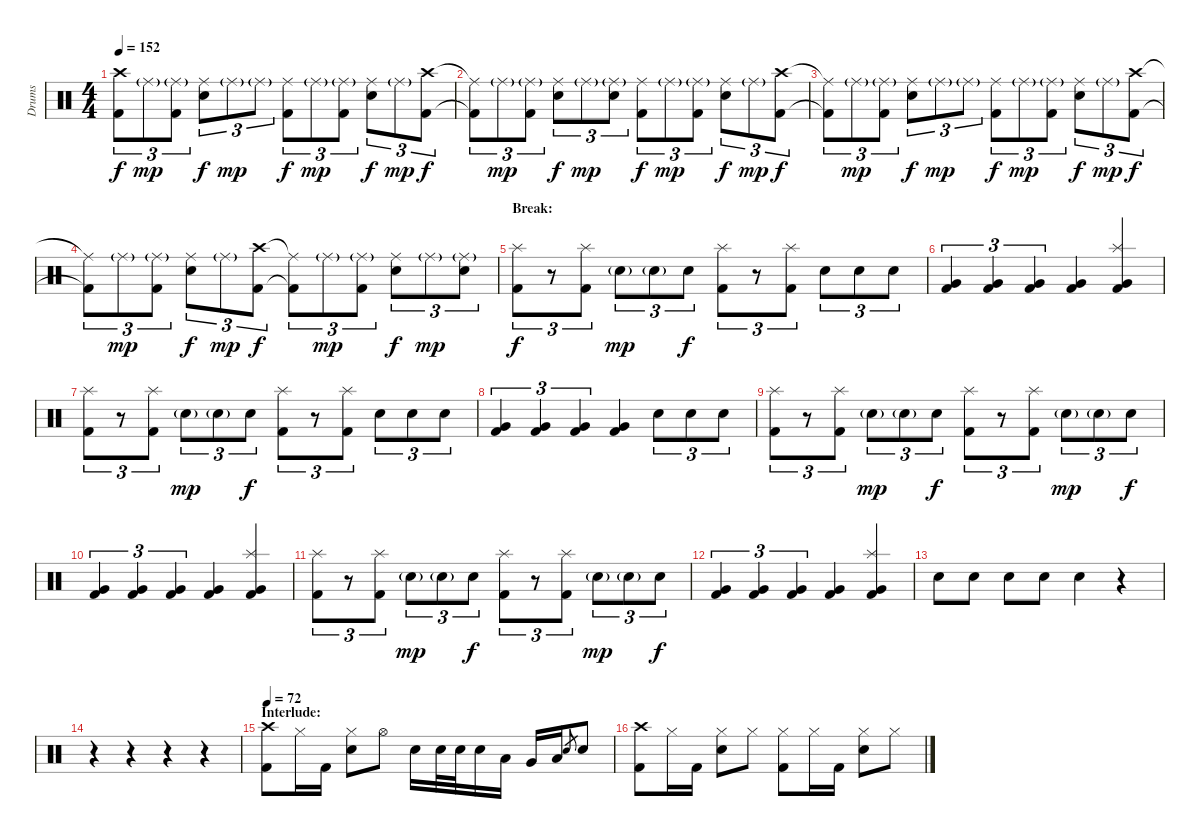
\track ("Drums" "Drums") {instrument percussion}
\staff {score}
\articulation defaults
\ts (4 4)
\tempo 152
\clef neutral
\ks c
("Crash high (hit)" "Kick (hit) 2").8{tu (3 2) dy f} "Ride (middle)"{g}.8{tu (3 2) dy mp} ("Ride (middle)"{g} "Kick (hit) 2").8{tu (3 2)} ("Ride (middle)" "Electric Snare (hit)").8{tu (3 2) dy f} "Ride (middle)"{g}.8{tu (3 2) dy mp} "Ride (middle)"{g}.8{tu (3 2)} ("Ride (middle)" "Kick (hit) 2").8{tu (3 2) dy f} "Ride (middle)"{g}.8{tu (3 2) dy mp} ("Ride (middle)"{g} "Kick (hit) 2").8{tu (3 2)} ("Ride (middle)" "Electric Snare (hit)").8{tu (3 2) dy f} "Ride (middle)"{g}.8{tu (3 2) dy mp} ("Crash high (hit)" "Kick (hit) 2").8{tu (3 2) dy f} |
("Ride (middle)"{t} "Kick (hit) 2"{t}).8{tu (3 2)} "Ride (middle)"{g}.8{tu (3 2) dy mp} ("Ride (middle)"{g} "Kick (hit) 2").8{tu (3 2)} ("Ride (middle)" "Electric Snare (hit)").8{tu (3 2) dy f} "Ride (middle)"{g}.8{tu (3 2) dy mp} ("Ride (middle)"{g} "Electric Snare (hit)").8{tu (3 2)} ("Ride (middle)" "Kick (hit) 2").8{tu (3 2) dy f} "Ride (middle)"{g}.8{tu (3 2) dy mp} ("Ride (middle)"{g} "Kick (hit) 2").8{tu (3 2)} ("Ride (middle)" "Electric Snare (hit)").8{tu (3 2) dy f} "Ride (middle)"{g}.8{tu (3 2) dy mp} ("Crash high (hit)" "Kick (hit) 2").8{tu (3 2) dy f} |
("Ride (middle)"{t} "Kick (hit) 2"{t}).8{tu (3 2)} "Ride (middle)"{g}.8{tu (3 2) dy mp} ("Ride (middle)"{g} "Kick (hit) 2").8{tu (3 2)} ("Ride (middle)" "Electric Snare (hit)").8{tu (3 2) dy f} "Ride (middle)"{g}.8{tu (3 2) dy mp} "Ride (middle)"{g}.8{tu (3 2)} ("Ride (middle)" "Kick (hit) 2").8{tu (3 2) dy f} "Ride (middle)"{g}.8{tu (3 2) dy mp} ("Ride (middle)"{g} "Kick (hit) 2").8{tu (3 2)} ("Ride (middle)" "Electric Snare (hit)").8{tu (3 2) dy f} "Ride (middle)"{g}.8{tu (3 2) dy mp} ("Crash high (hit)" "Kick (hit) 2").8{tu (3 2) dy f} |
("Ride (middle)"{t} "Kick (hit) 2"{t}).8{tu (3 2)} "Ride (middle)"{g}.8{tu (3 2) dy mp} ("Ride (middle)"{g} "Kick (hit) 2").8{tu (3 2)} ("Ride (middle)" "Electric Snare (hit)").8{tu (3 2) dy f} "Ride (middle)"{g}.8{tu (3 2) dy mp} ("Crash high (hit)" "Kick (hit) 2").8{tu (3 2) dy f} ("Ride (middle)"{t} "Kick (hit) 2"{t}).8{tu (3 2)} "Ride (middle)"{g}.8{tu (3 2) dy mp} ("Ride (middle)"{g} "Kick (hit) 2").8{tu (3 2)} ("Ride (middle)" "Electric Snare (hit)").8{tu (3 2) dy f} "Ride (middle)"{g}.8{tu (3 2) dy mp} ("Ride (middle)"{g} "Electric Snare (hit)").8{tu (3 2)} |
\section ("" "Break:")
("Splash (hit)" "Kick (hit) 2").8{tu (3 2) dy f} r.8{tu (3 2)} ("Splash (hit)" "Kick (hit) 2").8{tu (3 2)} "Electric Snare (hit)"{g}.8{tu (3 2) dy mp} "Electric Snare (hit)"{g}.8{tu (3 2)} "Electric Snare (hit)".8{tu (3 2) dy f} ("Splash (hit)" "Kick (hit) 2").8{tu (3 2)} r.8{tu (3 2)} ("Splash (hit)" "Kick (hit) 2").8{tu (3 2)} "Electric Snare (hit)".8{tu (3 2)} "Electric Snare (hit)".8{tu (3 2)} "Electric Snare (hit)".8{tu (3 2)} |
("Very Low Tom (hit)" "Kick (hit) 2").4{tu (3 2)} ("Very Low Tom (hit)" "Kick (hit) 2").4{tu (3 2)} ("Very Low Tom (hit)" "Kick (hit) 2").4{tu (3 2)} ("Very Low Tom (hit)" "Kick (hit) 2").4 ("Splash (hit)" "Very Low Tom (hit)" "Kick (hit) 2").4 |
("Splash (hit)" "Kick (hit) 2").8{tu (3 2)} r.8{tu (3 2)} ("Splash (hit)" "Kick (hit) 2").8{tu (3 2)} "Electric Snare (hit)"{g}.8{tu (3 2) dy mp} "Electric Snare (hit)"{g}.8{tu (3 2)} "Electric Snare (hit)".8{tu (3 2) dy f} ("Splash (hit)" "Kick (hit) 2").8{tu (3 2)} r.8{tu (3 2)} ("Splash (hit)" "Kick (hit) 2").8{tu (3 2)} "Electric Snare (hit)".8{tu (3 2)} "Electric Snare (hit)".8{tu (3 2)} "Electric Snare (hit)".8{tu (3 2)} |
("Very Low Tom (hit)" "Kick (hit) 2").4{tu (3 2)} ("Very Low Tom (hit)" "Kick (hit) 2").4{tu (3 2)} ("Very Low Tom (hit)" "Kick (hit) 2").4{tu (3 2)} ("Very Low Tom (hit)" "Kick (hit) 2").4 "Electric Snare (hit)".8{tu (3 2)} "Electric Snare (hit)".8{tu (3 2)} "Electric Snare (hit)".8{tu (3 2)} |
("Splash (hit)" "Kick (hit) 2").8{tu (3 2)} r.8{tu (3 2)} ("Splash (hit)" "Kick (hit) 2").8{tu (3 2)} "Electric Snare (hit)"{g}.8{tu (3 2) dy mp} "Electric Snare (hit)"{g}.8{tu (3 2)} "Electric Snare (hit)".8{tu (3 2) dy f} ("Splash (hit)" "Kick (hit) 2").8{tu (3 2)} r.8{tu (3 2)} ("Splash (hit)" "Kick (hit) 2").8{tu (3 2)} "Electric Snare (hit)"{g}.8{tu (3 2) dy mp} "Electric Snare (hit)"{g}.8{tu (3 2)} "Electric Snare (hit)".8{tu (3 2) dy f} |
("Very Low Tom (hit)" "Kick (hit) 2").4{tu (3 2)} ("Very Low Tom (hit)" "Kick (hit) 2").4{tu (3 2)} ("Very Low Tom (hit)" "Kick (hit) 2").4{tu (3 2)} ("Very Low Tom (hit)" "Kick (hit) 2").4 ("Splash (hit)" "Very Low Tom (hit)" "Kick (hit) 2").4 |
("Splash (hit)" "Kick (hit) 2").8{tu (3 2)} r.8{tu (3 2)} ("Splash (hit)" "Kick (hit) 2").8{tu (3 2)} "Electric Snare (hit)"{g}.8{tu (3 2) dy mp} "Electric Snare (hit)"{g}.8{tu (3 2)} "Electric Snare (hit)".8{tu (3 2) dy f} ("Splash (hit)" "Kick (hit) 2").8{tu (3 2)} r.8{tu (3 2)} ("Splash (hit)" "Kick (hit) 2").8{tu (3 2)} "Electric Snare (hit)"{g}.8{tu (3 2) dy mp} "Electric Snare (hit)"{g}.8{tu (3 2)} "Electric Snare (hit)".8{tu (3 2) dy f} |
("Very Low Tom (hit)" "Kick (hit) 2").4{tu (3 2)} ("Very Low Tom (hit)" "Kick (hit) 2").4{tu (3 2)} ("Very Low Tom (hit)" "Kick (hit) 2").4{tu (3 2)} ("Very Low Tom (hit)" "Kick (hit) 2").4 ("Splash (hit)" "Very Low Tom (hit)" "Kick (hit) 2").4 |
"Electric Snare (hit)".8 "Electric Snare (hit)".8 "Electric Snare (hit)".8 "Electric Snare (hit)".8 "Electric Snare (hit)".4 r.4 |
r.4 r.4 r.4 r.4 |
\section ("" "Interlude:")
\tempo 72
("Crash high (hit)" "Kick (hit) 2").8 "Hi-Hat (closed)".16 "Kick (hit) 2".16 ("Hi-Hat (closed)" "Electric Snare (hit)").8 "Hi-Hat (open)".8 "Electric Snare (hit)".16 "Electric Snare (hit)".32 "Electric Snare (hit)".32 "Electric Snare (hit)".16 "Low Tom (hit)".16 "Very Low Tom (hit)".16 "Low Floor Tom (hit)".16 "Electric Snare (hit)".8{gr} "Electric Snare (hit)".8 |
("Crash high (hit)" "Kick (hit) 2").8 "Hi-Hat (closed)".16 "Kick (hit) 2".16 ("Hi-Hat (closed)" "Electric Snare (hit)").8 "Hi-Hat (closed)".8 ("Hi-Hat (closed)" "Kick (hit) 2").8 "Hi-Hat (closed)".16 "Kick (hit) 2".16 ("Hi-Hat (closed)" "Electric Snare (hit)").8 "Hi-Hat (closed)".8
